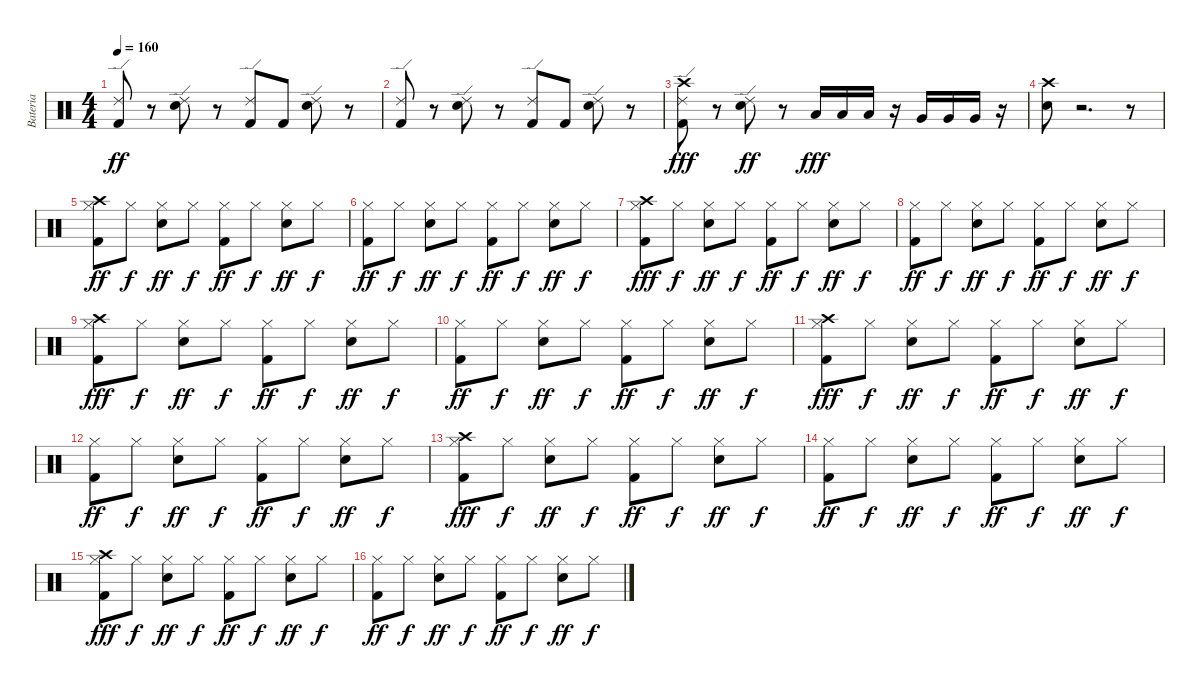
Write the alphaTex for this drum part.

\track ("Bateria" "Bateria") {instrument percussion}
\staff {score}
\articulation defaults
\ts (4 4)
\tempo 160
\clef neutral
\ks c
("Ride (edge) 2" "Kick (hit) 2").8{dy ff} r.8 ("Ride (edge) 2" "Snare (hit) 2").8 r.8 ("Ride (edge) 2" "Kick (hit) 2").8 "Kick (hit) 2".8 ("Ride (edge) 2" "Snare (hit) 2").8 r.8 |
("Ride (edge) 2" "Kick (hit) 2").8 r.8 ("Ride (edge) 2" "Snare (hit) 2").8 r.8 ("Ride (edge) 2" "Kick (hit) 2").8 "Kick (hit) 2".8 ("Ride (edge) 2" "Snare (hit) 2").8 r.8 |
("Kick (hit) 2" "Ride (edge) 2" "Crash high (hit)").8{dy fff} r.8 ("Ride (edge) 2" "Snare (hit) 2").8{dy ff} r.8 "Low Tom (hit)".16{dy fff} "Low Tom (hit)".16 "Low Tom (hit)".16 r.16 "Very Low Tom (hit)".16 "Very Low Tom (hit)".16 "Very Low Tom (hit)".16 r.16 |
("Snare (hit) 2" "Crash high (hit)").8 r.2{d} r.8 |
("Crash high (hit)" "Kick (hit) 2" "Hi-Hat (closed)").8{dy ff} "Hi-Hat (closed)".8{dy f} ("Hi-Hat (closed)" "Snare (hit) 2").8{dy ff} "Hi-Hat (closed)".8{dy f} ("Kick (hit) 2" "Hi-Hat (closed)").8{dy ff} "Hi-Hat (closed)".8{dy f} ("Hi-Hat (closed)" "Snare (hit) 2").8{dy ff} "Hi-Hat (closed)".8{dy f} |
("Kick (hit) 2" "Hi-Hat (closed)").8{dy ff} "Hi-Hat (closed)".8{dy f} ("Hi-Hat (closed)" "Snare (hit) 2").8{dy ff} "Hi-Hat (closed)".8{dy f} ("Kick (hit) 2" "Hi-Hat (closed)").8{dy ff} "Hi-Hat (closed)".8{dy f} ("Hi-Hat (closed)" "Snare (hit) 2").8{dy ff} "Hi-Hat (closed)".8{dy f} |
("Kick (hit) 2" "Crash high (hit)" "Hi-Hat (closed)").8{dy fff} "Hi-Hat (closed)".8{dy f} ("Hi-Hat (closed)" "Snare (hit) 2").8{dy ff} "Hi-Hat (closed)".8{dy f} ("Kick (hit) 2" "Hi-Hat (closed)").8{dy ff} "Hi-Hat (closed)".8{dy f} ("Hi-Hat (closed)" "Snare (hit) 2").8{dy ff} "Hi-Hat (closed)".8{dy f} |
("Kick (hit) 2" "Hi-Hat (closed)").8{dy ff} "Hi-Hat (closed)".8{dy f} ("Hi-Hat (closed)" "Snare (hit) 2").8{dy ff} "Hi-Hat (closed)".8{dy f} ("Kick (hit) 2" "Hi-Hat (closed)").8{dy ff} "Hi-Hat (closed)".8{dy f} ("Hi-Hat (closed)" "Snare (hit) 2").8{dy ff} "Hi-Hat (closed)".8{dy f} |
("Kick (hit) 2" "Crash high (hit)" "Hi-Hat (closed)").8{dy fff} "Hi-Hat (closed)".8{dy f} ("Hi-Hat (closed)" "Snare (hit) 2").8{dy ff} "Hi-Hat (closed)".8{dy f} ("Kick (hit) 2" "Hi-Hat (closed)").8{dy ff} "Hi-Hat (closed)".8{dy f} ("Hi-Hat (closed)" "Snare (hit) 2").8{dy ff} "Hi-Hat (closed)".8{dy f} |
("Kick (hit) 2" "Hi-Hat (closed)").8{dy ff} "Hi-Hat (closed)".8{dy f} ("Hi-Hat (closed)" "Snare (hit) 2").8{dy ff} "Hi-Hat (closed)".8{dy f} ("Kick (hit) 2" "Hi-Hat (closed)").8{dy ff} "Hi-Hat (closed)".8{dy f} ("Hi-Hat (closed)" "Snare (hit) 2").8{dy ff} "Hi-Hat (closed)".8{dy f} |
("Kick (hit) 2" "Crash high (hit)" "Hi-Hat (closed)").8{dy fff} "Hi-Hat (closed)".8{dy f} ("Hi-Hat (closed)" "Snare (hit) 2").8{dy ff} "Hi-Hat (closed)".8{dy f} ("Kick (hit) 2" "Hi-Hat (closed)").8{dy ff} "Hi-Hat (closed)".8{dy f} ("Hi-Hat (closed)" "Snare (hit) 2").8{dy ff} "Hi-Hat (closed)".8{dy f} |
("Kick (hit) 2" "Hi-Hat (closed)").8{dy ff} "Hi-Hat (closed)".8{dy f} ("Hi-Hat (closed)" "Snare (hit) 2").8{dy ff} "Hi-Hat (closed)".8{dy f} ("Kick (hit) 2" "Hi-Hat (closed)").8{dy ff} "Hi-Hat (closed)".8{dy f} ("Hi-Hat (closed)" "Snare (hit) 2").8{dy ff} "Hi-Hat (closed)".8{dy f} |
("Kick (hit) 2" "Crash high (hit)" "Hi-Hat (closed)").8{dy fff} "Hi-Hat (closed)".8{dy f} ("Hi-Hat (closed)" "Snare (hit) 2").8{dy ff} "Hi-Hat (closed)".8{dy f} ("Kick (hit) 2" "Hi-Hat (closed)").8{dy ff} "Hi-Hat (closed)".8{dy f} ("Hi-Hat (closed)" "Snare (hit) 2").8{dy ff} "Hi-Hat (closed)".8{dy f} |
("Kick (hit) 2" "Hi-Hat (closed)").8{dy ff} "Hi-Hat (closed)".8{dy f} ("Hi-Hat (closed)" "Snare (hit) 2").8{dy ff} "Hi-Hat (closed)".8{dy f} ("Kick (hit) 2" "Hi-Hat (closed)").8{dy ff} "Hi-Hat (closed)".8{dy f} ("Hi-Hat (closed)" "Snare (hit) 2").8{dy ff} "Hi-Hat (closed)".8{dy f} |
("Kick (hit) 2" "Crash high (hit)" "Hi-Hat (closed)").8{dy fff} "Hi-Hat (closed)".8{dy f} ("Hi-Hat (closed)" "Snare (hit) 2").8{dy ff} "Hi-Hat (closed)".8{dy f} ("Kick (hit) 2" "Hi-Hat (closed)").8{dy ff} "Hi-Hat (closed)".8{dy f} ("Hi-Hat (closed)" "Snare (hit) 2").8{dy ff} "Hi-Hat (closed)".8{dy f} |
("Kick (hit) 2" "Hi-Hat (closed)").8{dy ff} "Hi-Hat (closed)".8{dy f} ("Hi-Hat (closed)" "Snare (hit) 2").8{dy ff} "Hi-Hat (closed)".8{dy f} ("Kick (hit) 2" "Hi-Hat (closed)").8{dy ff} "Hi-Hat (closed)".8{dy f} ("Hi-Hat (closed)" "Snare (hit) 2").8{dy ff} "Hi-Hat (closed)".8{dy f}
